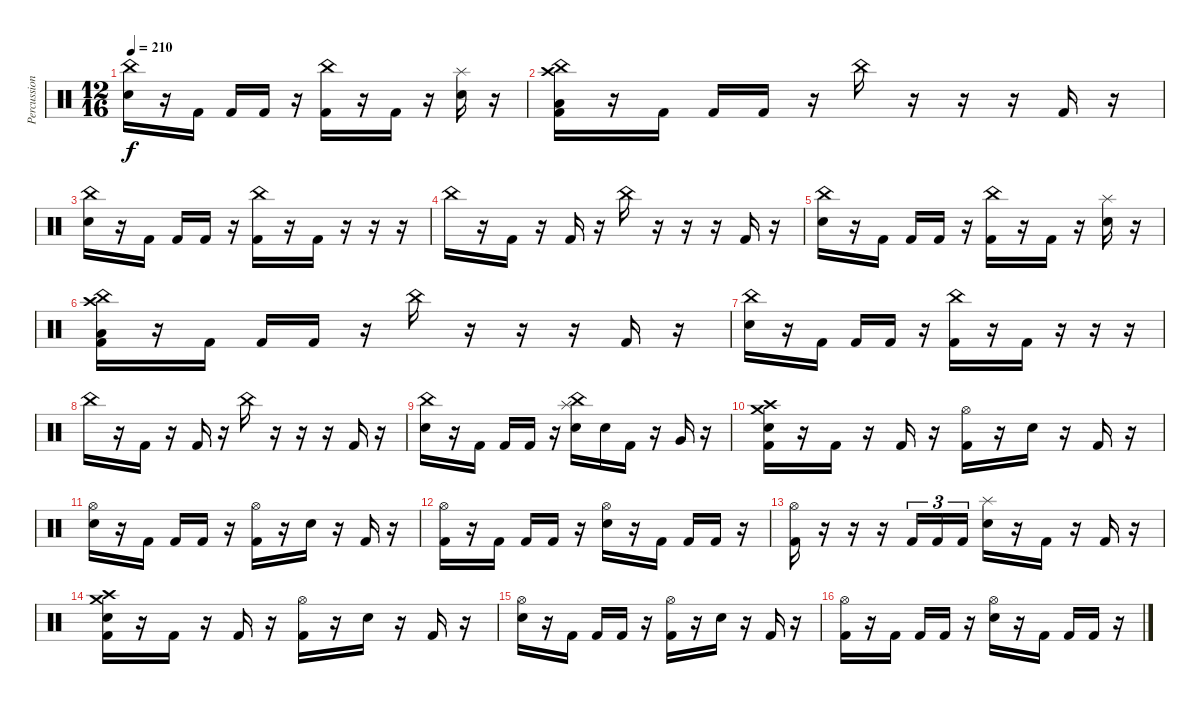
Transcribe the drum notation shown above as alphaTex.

\track ("Percussion" "Percussion") {instrument percussion}
\staff {score}
\articulation defaults
\ts (12 16)
\tempo 210
\clef neutral
\ks c
("China (hit)" "Electric Snare (hit)").16{dy f} r.16 "Kick (hit) 2".16 "Kick (hit) 2".16 "Kick (hit) 2".16 r.16 ("China (hit)" "Kick (hit) 2").16 r.16 "Kick (hit) 2".16 r.16 ("Splash (hit)" "Electric Snare (hit)").16 r.16 |
("China (hit)" "Crash high (hit)" "Low Floor Tom (hit)" "Kick (hit) 2").16 r.16 "Kick (hit) 2".16 "Kick (hit) 2".16 "Kick (hit) 2".16 r.16 "China (hit)".16 r.16 r.16 r.16 "Kick (hit) 2".16 r.16 |
("China (hit)" "Electric Snare (hit)").16 r.16 "Kick (hit) 2".16 "Kick (hit) 2".16 "Kick (hit) 2".16 r.16 ("China (hit)" "Kick (hit) 2").16 r.16 "Kick (hit) 2".16 r.16 r.16 r.16 |
"China (hit)".16 r.16 "Kick (hit) 2".16 r.16 "Kick (hit) 2".16 r.16 "China (hit)".16 r.16 r.16 r.16 "Kick (hit) 2".16 r.16 |
("China (hit)" "Electric Snare (hit)").16 r.16 "Kick (hit) 2".16 "Kick (hit) 2".16 "Kick (hit) 2".16 r.16 ("China (hit)" "Kick (hit) 2").16 r.16 "Kick (hit) 2".16 r.16 ("Splash (hit)" "Electric Snare (hit)").16 r.16 |
("China (hit)" "Crash high (hit)" "Low Floor Tom (hit)" "Kick (hit) 2").16 r.16 "Kick (hit) 2".16 "Kick (hit) 2".16 "Kick (hit) 2".16 r.16 "China (hit)".16 r.16 r.16 r.16 "Kick (hit) 2".16 r.16 |
("China (hit)" "Electric Snare (hit)").16 r.16 "Kick (hit) 2".16 "Kick (hit) 2".16 "Kick (hit) 2".16 r.16 ("China (hit)" "Kick (hit) 2").16 r.16 "Kick (hit) 2".16 r.16 r.16 r.16 |
"China (hit)".16 r.16 "Kick (hit) 2".16 r.16 "Kick (hit) 2".16 r.16 "China (hit)".16 r.16 r.16 r.16 "Kick (hit) 2".16 r.16 |
("China (hit)" "Electric Snare (hit)").16 r.16 "Kick (hit) 2".16 "Kick (hit) 2".16 "Kick (hit) 2".16 r.16 ("China (hit)" "Splash (hit)" "Electric Snare (hit)").16 "Electric Snare (hit)".16 "Kick (hit) 2".16 r.16 "Very Low Tom (hit)".16 r.16 |
("Crash high (hit)" "Crash medium (hit)" "Electric Snare (hit)" "Kick (hit) 2").16 r.16 "Kick (hit) 2".16 r.16 "Kick (hit) 2".16 r.16 ("Hi-Hat (open)" "Kick (hit) 2").16 r.16 "Electric Snare (hit)".16 r.16 "Kick (hit) 2".16 r.16 |
("Hi-Hat (open)" "Electric Snare (hit)").16 r.16 "Kick (hit) 2".16 "Kick (hit) 2".16 "Kick (hit) 2".16 r.16 ("Hi-Hat (open)" "Kick (hit) 2").16 r.16 "Electric Snare (hit)".16 r.16 "Kick (hit) 2".16 r.16 |
("Hi-Hat (open)" "Kick (hit) 2").16 r.16 "Kick (hit) 2".16 "Kick (hit) 2".16 "Kick (hit) 2".16 r.16 ("Hi-Hat (open)" "Electric Snare (hit)").16 r.16 "Kick (hit) 2".16 "Kick (hit) 2".16 "Kick (hit) 2".16 r.16 |
("Hi-Hat (open)" "Kick (hit) 2").16 r.16 r.16 r.16 "Kick (hit) 2".16{tu (3 2)} "Kick (hit) 2".16{tu (3 2)} "Kick (hit) 2".16{tu (3 2)} ("Splash (hit)" "Electric Snare (hit)").16 r.16 "Kick (hit) 2".16 r.16 "Kick (hit) 2".16 r.16 |
("Crash high (hit)" "Crash medium (hit)" "Electric Snare (hit)" "Kick (hit) 2").16 r.16 "Kick (hit) 2".16 r.16 "Kick (hit) 2".16 r.16 ("Hi-Hat (open)" "Kick (hit) 2").16 r.16 "Electric Snare (hit)".16 r.16 "Kick (hit) 2".16 r.16 |
("Hi-Hat (open)" "Electric Snare (hit)").16 r.16 "Kick (hit) 2".16 "Kick (hit) 2".16 "Kick (hit) 2".16 r.16 ("Hi-Hat (open)" "Kick (hit) 2").16 r.16 "Electric Snare (hit)".16 r.16 "Kick (hit) 2".16 r.16 |
("Hi-Hat (open)" "Kick (hit) 2").16 r.16 "Kick (hit) 2".16 "Kick (hit) 2".16 "Kick (hit) 2".16 r.16 ("Hi-Hat (open)" "Electric Snare (hit)").16 r.16 "Kick (hit) 2".16 "Kick (hit) 2".16 "Kick (hit) 2".16 r.16
